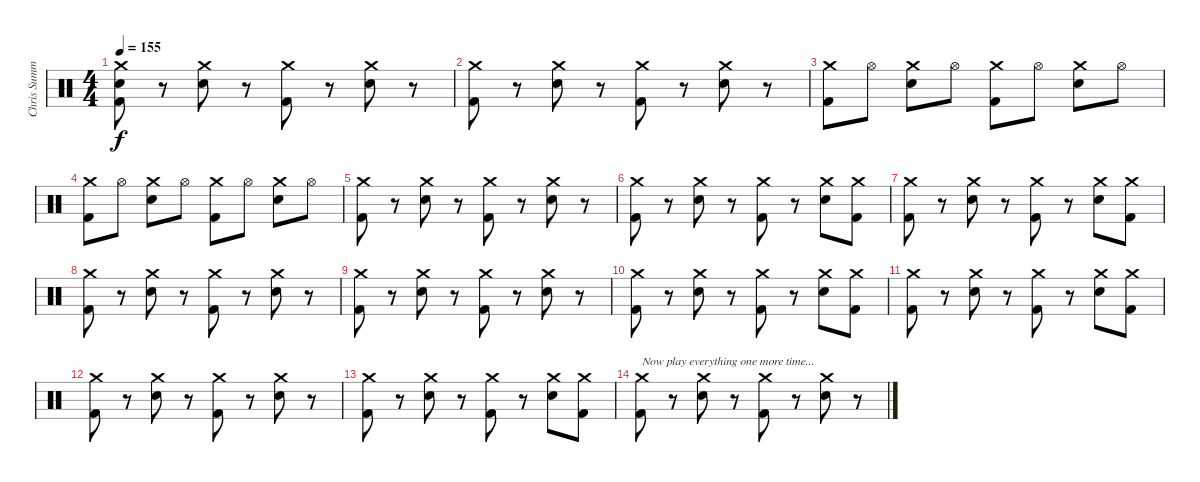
\track ("Chris Summers" "Chris Summ") {instrument percussion}
\staff {score}
\articulation defaults
\ts (4 4)
\tempo 155
\clef neutral
\ks c
("Crash medium (hit)" "Electric Snare (hit)" "Kick (hit) 2").8{dy f} r.8 ("Crash medium (hit)" "Electric Snare (hit)").8 r.8 ("Crash medium (hit)" "Kick (hit) 2").8 r.8 ("Crash medium (hit)" "Electric Snare (hit)").8 r.8 |
("Crash medium (hit)" "Kick (hit) 2").8 r.8 ("Crash medium (hit)" "Electric Snare (hit)").8 r.8 ("Crash medium (hit)" "Kick (hit) 2").8 r.8 ("Crash medium (hit)" "Electric Snare (hit)").8 r.8 |
("Crash medium (hit)" "Kick (hit) 2").8 "Hi-Hat (open)".8 ("Crash medium (hit)" "Electric Snare (hit)").8 "Hi-Hat (open)".8 ("Crash medium (hit)" "Kick (hit) 2").8 "Hi-Hat (open)".8 ("Crash medium (hit)" "Electric Snare (hit)").8 "Hi-Hat (open)".8 |
("Crash medium (hit)" "Kick (hit) 2").8 "Hi-Hat (open)".8 ("Crash medium (hit)" "Electric Snare (hit)").8 "Hi-Hat (open)".8 ("Crash medium (hit)" "Kick (hit) 2").8 "Hi-Hat (open)".8 ("Crash medium (hit)" "Electric Snare (hit)").8 "Hi-Hat (open)".8 |
("Crash medium (hit)" "Kick (hit) 2").8 r.8 ("Crash medium (hit)" "Electric Snare (hit)").8 r.8 ("Crash medium (hit)" "Kick (hit) 2").8 r.8 ("Crash medium (hit)" "Electric Snare (hit)").8 r.8 |
("Crash medium (hit)" "Kick (hit) 2").8 r.8 ("Crash medium (hit)" "Electric Snare (hit)").8 r.8 ("Crash medium (hit)" "Kick (hit) 2").8 r.8 ("Crash medium (hit)" "Electric Snare (hit)").8 ("Crash medium (hit)" "Kick (hit) 2").8 |
("Crash medium (hit)" "Kick (hit) 2").8 r.8 ("Crash medium (hit)" "Electric Snare (hit)").8 r.8 ("Crash medium (hit)" "Kick (hit) 2").8 r.8 ("Crash medium (hit)" "Electric Snare (hit)").8 ("Crash medium (hit)" "Kick (hit) 2").8 |
("Crash medium (hit)" "Kick (hit) 2").8 r.8 ("Crash medium (hit)" "Electric Snare (hit)").8 r.8 ("Crash medium (hit)" "Kick (hit) 2").8 r.8 ("Crash medium (hit)" "Electric Snare (hit)").8 r.8 |
("Crash medium (hit)" "Kick (hit) 2").8 r.8 ("Crash medium (hit)" "Electric Snare (hit)").8 r.8 ("Crash medium (hit)" "Kick (hit) 2").8 r.8 ("Crash medium (hit)" "Electric Snare (hit)").8 r.8 |
("Crash medium (hit)" "Kick (hit) 2").8 r.8 ("Crash medium (hit)" "Electric Snare (hit)").8 r.8 ("Crash medium (hit)" "Kick (hit) 2").8 r.8 ("Crash medium (hit)" "Electric Snare (hit)").8 ("Crash medium (hit)" "Kick (hit) 2").8 |
("Crash medium (hit)" "Kick (hit) 2").8 r.8 ("Crash medium (hit)" "Electric Snare (hit)").8 r.8 ("Crash medium (hit)" "Kick (hit) 2").8 r.8 ("Crash medium (hit)" "Electric Snare (hit)").8 ("Crash medium (hit)" "Kick (hit) 2").8 |
("Crash medium (hit)" "Kick (hit) 2").8 r.8 ("Crash medium (hit)" "Electric Snare (hit)").8 r.8 ("Crash medium (hit)" "Kick (hit) 2").8 r.8 ("Crash medium (hit)" "Electric Snare (hit)").8 r.8 |
("Crash medium (hit)" "Kick (hit) 2").8 r.8 ("Crash medium (hit)" "Electric Snare (hit)").8 r.8 ("Crash medium (hit)" "Kick (hit) 2").8 r.8 ("Crash medium (hit)" "Electric Snare (hit)").8 ("Crash medium (hit)" "Kick (hit) 2").8 |
("Crash medium (hit)" "Kick (hit) 2").8{txt "Now play everything one more time..."} r.8 ("Crash medium (hit)" "Electric Snare (hit)").8 r.8 ("Crash medium (hit)" "Kick (hit) 2").8 r.8 ("Crash medium (hit)" "Electric Snare (hit)").8 r.8
